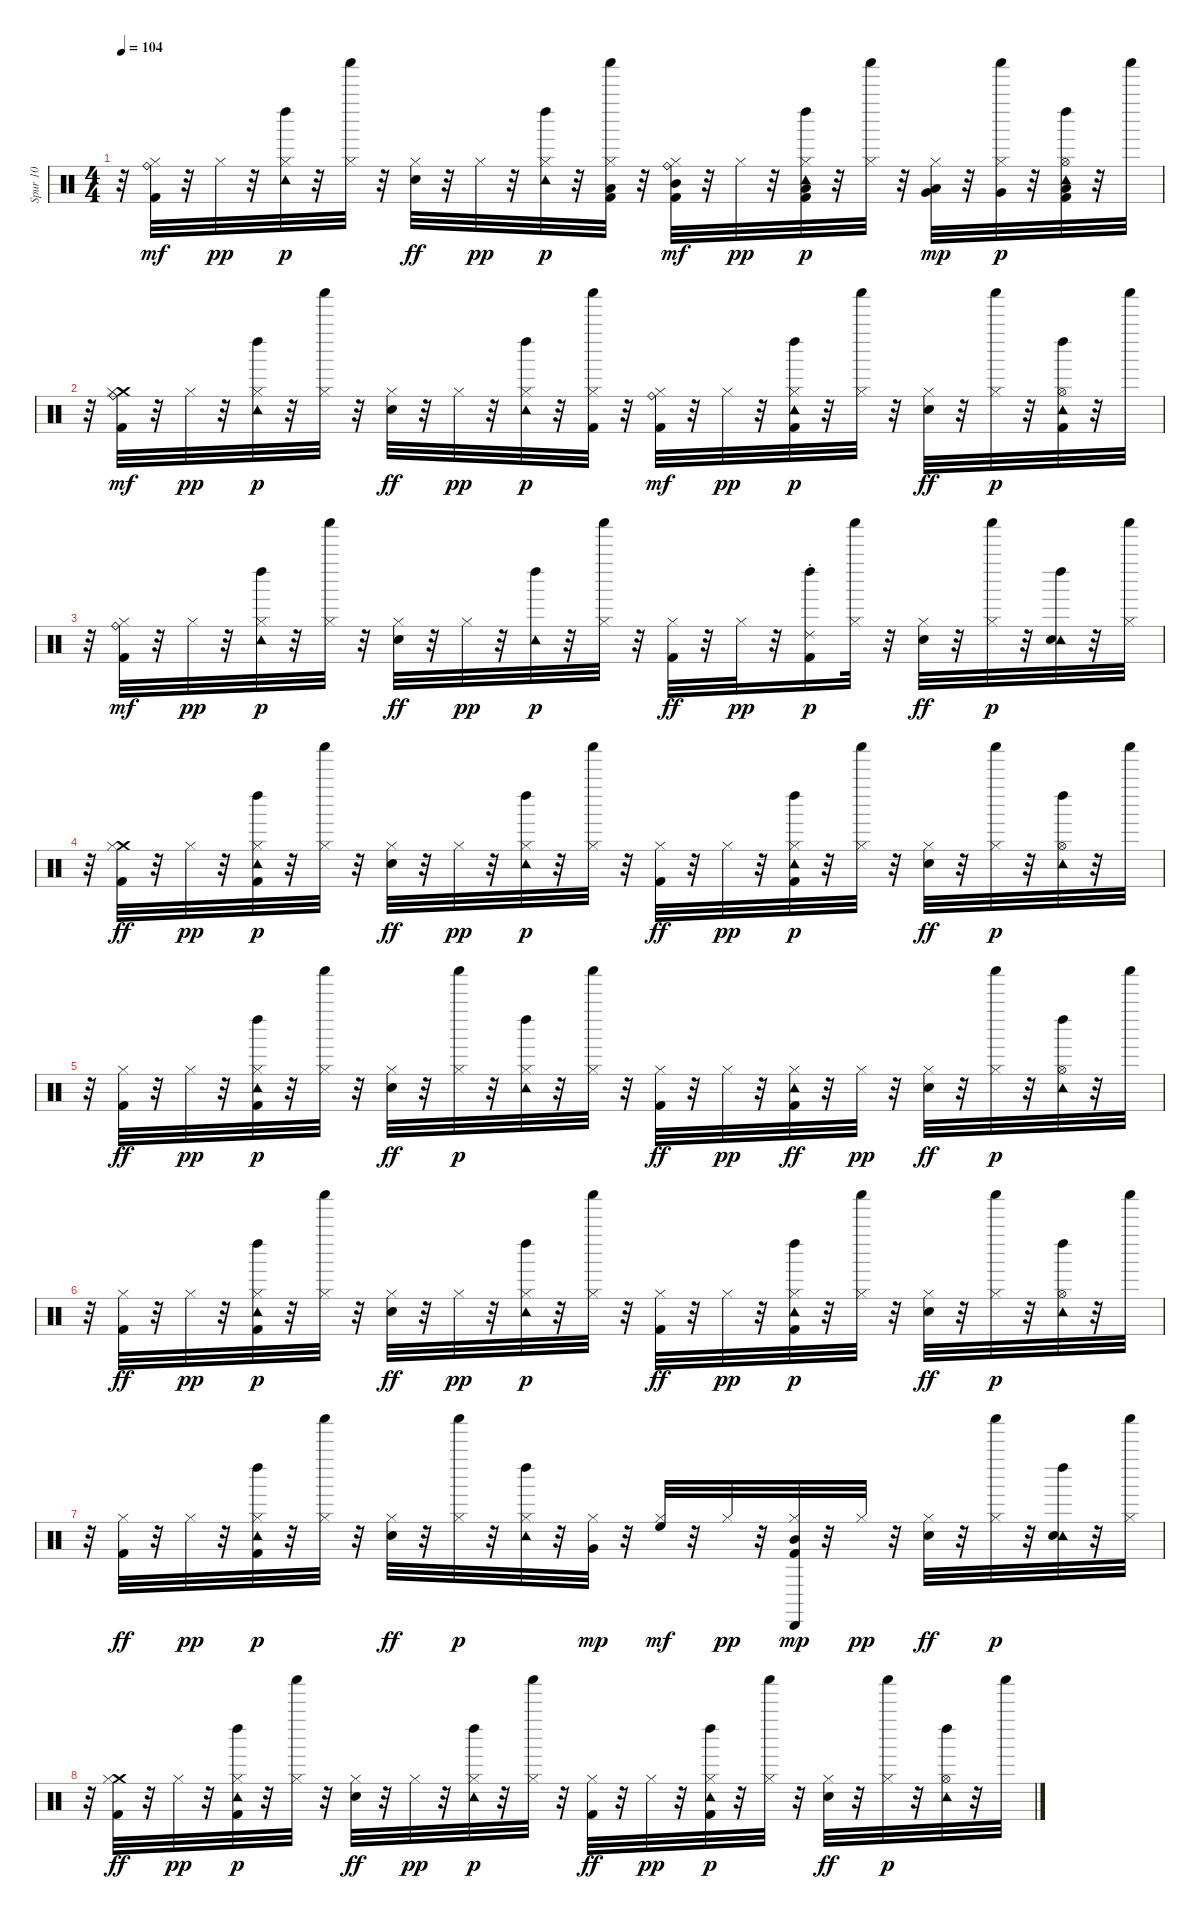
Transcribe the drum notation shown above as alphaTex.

\track ("Spur 10" "Spur 10") {instrument percussion}
\staff {score}
\articulation defaults
\ts (4 4)
\tempo 104
\clef neutral
\ks c
r.32{dy p} ("Hi-Hat (closed)" "Ride (bell)" "Kick (hit) 2").32{dy mf} r.32 "Hi-Hat (closed)".32{dy pp} r.32 ("Hi-Hat (closed)" "Tambourine (hit)" "Left Maraca (hit)").32{dy p} r.32 ("Hi-Hat (closed)" "Shaker (hit)").32 r.32 ("Hi-Hat (closed)" "Snare (hit) 2").32{dy ff} r.32 "Hi-Hat (closed)".32{dy pp} r.32 ("Hi-Hat (closed)" "Tambourine (hit)" "Left Maraca (hit)").32{dy p} r.32 ("Low Floor Tom (hit)" "Hi-Hat (closed)" "Kick (hit) 2" "Shaker (hit)").32 r.32 ("Hi-Hat (closed)" "Mid Tom (hit)" "Ride (bell)" "Kick (hit) 2").32{dy mf} r.32 "Hi-Hat (closed)".32{dy pp} r.32 ("Hi-Hat (closed)" "Low Tom (hit)" "Tambourine (hit)" "Kick (hit) 2" "Left Maraca (hit)").32{dy p} r.32 ("Hi-Hat (closed)" "Shaker (hit)").32 r.32 ("Hi-Hat (closed)" "Very Low Tom (hit)" "Low Tom (hit)").32{dy mp} r.32 ("Hi-Hat (closed)" "Very Low Tom (hit)" "Shaker (hit)").32{dy p} r.32 ("Low Floor Tom (hit)" "Hi-Hat (open)" "Tambourine (hit)" "Kick (hit) 2" "Left Maraca (hit)").32 r.32 "Shaker (hit)".32 |
r.32 ("Crash medium (hit)" "Hi-Hat (closed)" "Ride (bell)" "Kick (hit) 2").32{dy mf} r.32 "Hi-Hat (closed)".32{dy pp} r.32 ("Hi-Hat (closed)" "Tambourine (hit)" "Left Maraca (hit)").32{dy p} r.32 ("Hi-Hat (closed)" "Shaker (hit)").32 r.32 ("Hi-Hat (closed)" "Snare (hit) 2").32{dy ff} r.32 "Hi-Hat (closed)".32{dy pp} r.32 ("Hi-Hat (closed)" "Tambourine (hit)" "Left Maraca (hit)").32{dy p} r.32 ("Hi-Hat (closed)" "Kick (hit) 2" "Shaker (hit)").32 r.32 ("Hi-Hat (closed)" "Ride (bell)" "Kick (hit) 2").32{dy mf} r.32 "Hi-Hat (closed)".32{dy pp} r.32 ("Hi-Hat (closed)" "Tambourine (hit)" "Kick (hit) 2" "Left Maraca (hit)").32{dy p} r.32 ("Hi-Hat (closed)" "Shaker (hit)").32 r.32 ("Hi-Hat (closed)" "Snare (hit) 2").32{dy ff} r.32 ("Hi-Hat (closed)" "Shaker (hit)").32{dy p} r.32 ("Hi-Hat (open)" "Tambourine (hit)" "Kick (hit) 2" "Left Maraca (hit)").32 r.32 "Shaker (hit)".32 |
r.32 ("Hi-Hat (closed)" "Ride (bell)" "Kick (hit) 2").32{dy mf} r.32 "Hi-Hat (closed)".32{dy pp} r.32 ("Hi-Hat (closed)" "Tambourine (hit)" "Left Maraca (hit)").32{dy p} r.32 ("Hi-Hat (closed)" "Shaker (hit)").32 r.32 ("Hi-Hat (closed)" "Snare (hit) 2").32{dy ff} r.32 "Hi-Hat (closed)".32{dy pp} r.32 ("Tambourine (hit)" "Left Maraca (hit)").32{dy p} r.32 ("Hi-Hat (closed)" "Shaker (hit)").32 r.32 ("Hi-Hat (closed)" "Kick (hit) 2").32{dy ff} r.32 "Hi-Hat (closed)".32{dy pp} r.32 ("Ride (choke) 2" "Kick (hit) 2" "Left Maraca (hit)").16{dy p} ("Hi-Hat (closed)" "Shaker (hit)").32 r.32 ("Hi-Hat (closed)" "Snare (hit) 2").32{dy ff} r.32 ("Hi-Hat (closed)" "Shaker (hit)").32{dy p} r.32 ("Tambourine (hit)" "Snare (hit) 2" "Left Maraca (hit)").32 r.32 ("Hi-Hat (closed)" "Shaker (hit)").32 |
r.32 ("Crash medium (hit)" "Hi-Hat (closed)" "Kick (hit) 2").32{dy ff} r.32 "Hi-Hat (closed)".32{dy pp} r.32 ("Hi-Hat (closed)" "Tambourine (hit)" "Kick (hit) 2" "Left Maraca (hit)").32{dy p} r.32 ("Hi-Hat (closed)" "Shaker (hit)").32 r.32 ("Hi-Hat (closed)" "Snare (hit) 2").32{dy ff} r.32 "Hi-Hat (closed)".32{dy pp} r.32 ("Hi-Hat (closed)" "Tambourine (hit)" "Left Maraca (hit)").32{dy p} r.32 ("Hi-Hat (closed)" "Shaker (hit)").32 r.32 ("Hi-Hat (closed)" "Kick (hit) 2").32{dy ff} r.32 "Hi-Hat (closed)".32{dy pp} r.32 ("Hi-Hat (closed)" "Tambourine (hit)" "Kick (hit) 2" "Left Maraca (hit)").32{dy p} r.32 ("Hi-Hat (closed)" "Shaker (hit)").32 r.32 ("Hi-Hat (closed)" "Snare (hit) 2").32{dy ff} r.32 ("Hi-Hat (closed)" "Shaker (hit)").32{dy p} r.32 ("Hi-Hat (open)" "Tambourine (hit)" "Left Maraca (hit)").32 r.32 "Shaker (hit)".32 |
r.32 ("Hi-Hat (closed)" "Kick (hit) 2").32{dy ff} r.32 "Hi-Hat (closed)".32{dy pp} r.32 ("Hi-Hat (closed)" "Tambourine (hit)" "Kick (hit) 2" "Left Maraca (hit)").32{dy p} r.32 ("Hi-Hat (closed)" "Shaker (hit)").32 r.32 ("Hi-Hat (closed)" "Snare (hit) 2").32{dy ff} r.32 ("Hi-Hat (closed)" "Shaker (hit)").32{dy p} r.32 ("Hi-Hat (closed)" "Tambourine (hit)" "Left Maraca (hit)").32 r.32 ("Hi-Hat (closed)" "Shaker (hit)").32 r.32 ("Hi-Hat (closed)" "Kick (hit) 2").32{dy ff} r.32 "Hi-Hat (closed)".32{dy pp} r.32 ("Hi-Hat (closed)" "Tambourine (hit)" "Kick (hit) 2").32{dy ff} r.32 "Hi-Hat (closed)".32{dy pp} r.32 ("Hi-Hat (closed)" "Snare (hit) 2").32{dy ff} r.32 ("Hi-Hat (closed)" "Shaker (hit)").32{dy p} r.32 ("Hi-Hat (open)" "Tambourine (hit)" "Left Maraca (hit)").32 r.32 "Shaker (hit)".32 |
r.32 ("Hi-Hat (closed)" "Kick (hit) 2").32{dy ff} r.32 "Hi-Hat (closed)".32{dy pp} r.32 ("Hi-Hat (closed)" "Tambourine (hit)" "Kick (hit) 2" "Left Maraca (hit)").32{dy p} r.32 ("Hi-Hat (closed)" "Shaker (hit)").32 r.32 ("Hi-Hat (closed)" "Snare (hit) 2").32{dy ff} r.32 "Hi-Hat (closed)".32{dy pp} r.32 ("Hi-Hat (closed)" "Tambourine (hit)" "Left Maraca (hit)").32{dy p} r.32 ("Hi-Hat (closed)" "Shaker (hit)").32 r.32 ("Hi-Hat (closed)" "Kick (hit) 2").32{dy ff} r.32 "Hi-Hat (closed)".32{dy pp} r.32 ("Hi-Hat (closed)" "Tambourine (hit)" "Kick (hit) 2" "Left Maraca (hit)").32{dy p} r.32 ("Hi-Hat (closed)" "Shaker (hit)").32 r.32 ("Hi-Hat (closed)" "Snare (hit) 2").32{dy ff} r.32 ("Hi-Hat (closed)" "Shaker (hit)").32{dy p} r.32 ("Hi-Hat (open)" "Tambourine (hit)" "Left Maraca (hit)").32 r.32 "Shaker (hit)".32 |
r.32 ("Hi-Hat (closed)" "Kick (hit) 2").32{dy ff} r.32 "Hi-Hat (closed)".32{dy pp} r.32 ("Hi-Hat (closed)" "Tambourine (hit)" "Kick (hit) 2" "Left Maraca (hit)").32{dy p} r.32 ("Hi-Hat (closed)" "Shaker (hit)").32 r.32 ("Hi-Hat (closed)" "Snare (hit) 2").32{dy ff} r.32 ("Hi-Hat (closed)" "Shaker (hit)").32{dy p} r.32 ("Hi-Hat (closed)" "Tambourine (hit)" "Left Maraca (hit)").32 r.32 ("Hi-Hat (closed)" "Very Low Tom (hit)").32{dy mp} r.32 ("Hi-Hat (closed)" "High Floor Tom (hit)").32{dy mf} r.32 "Hi-Hat (closed)".32{dy pp} r.32 ("Hi-Hat (closed)" "Mid Tom (hit)" "Cabasa (hit)" "Kick (hit) 2").32{dy mp} r.32 "Hi-Hat (closed)".32{dy pp} r.32 ("Hi-Hat (closed)" "Snare (hit) 2").32{dy ff} r.32 ("Hi-Hat (closed)" "Shaker (hit)").32{dy p} r.32 ("Tambourine (hit)" "Snare (hit) 2" "Left Maraca (hit)").32 r.32 ("Hi-Hat (closed)" "Shaker (hit)").32 |
r.32 ("Crash medium (hit)" "Hi-Hat (closed)" "Kick (hit) 2").32{dy ff} r.32 "Hi-Hat (closed)".32{dy pp} r.32 ("Hi-Hat (closed)" "Tambourine (hit)" "Kick (hit) 2" "Left Maraca (hit)").32{dy p} r.32 ("Hi-Hat (closed)" "Shaker (hit)").32 r.32 ("Hi-Hat (closed)" "Snare (hit) 2").32{dy ff} r.32 "Hi-Hat (closed)".32{dy pp} r.32 ("Hi-Hat (closed)" "Tambourine (hit)" "Left Maraca (hit)").32{dy p} r.32 ("Hi-Hat (closed)" "Shaker (hit)").32 r.32 ("Hi-Hat (closed)" "Kick (hit) 2").32{dy ff} r.32 "Hi-Hat (closed)".32{dy pp} r.32 ("Hi-Hat (closed)" "Tambourine (hit)" "Kick (hit) 2" "Left Maraca (hit)").32{dy p} r.32 ("Hi-Hat (closed)" "Shaker (hit)").32 r.32 ("Hi-Hat (closed)" "Snare (hit) 2").32{dy ff} r.32 ("Hi-Hat (closed)" "Shaker (hit)").32{dy p} r.32 ("Hi-Hat (open)" "Tambourine (hit)" "Left Maraca (hit)").32 r.32 "Shaker (hit)".32
